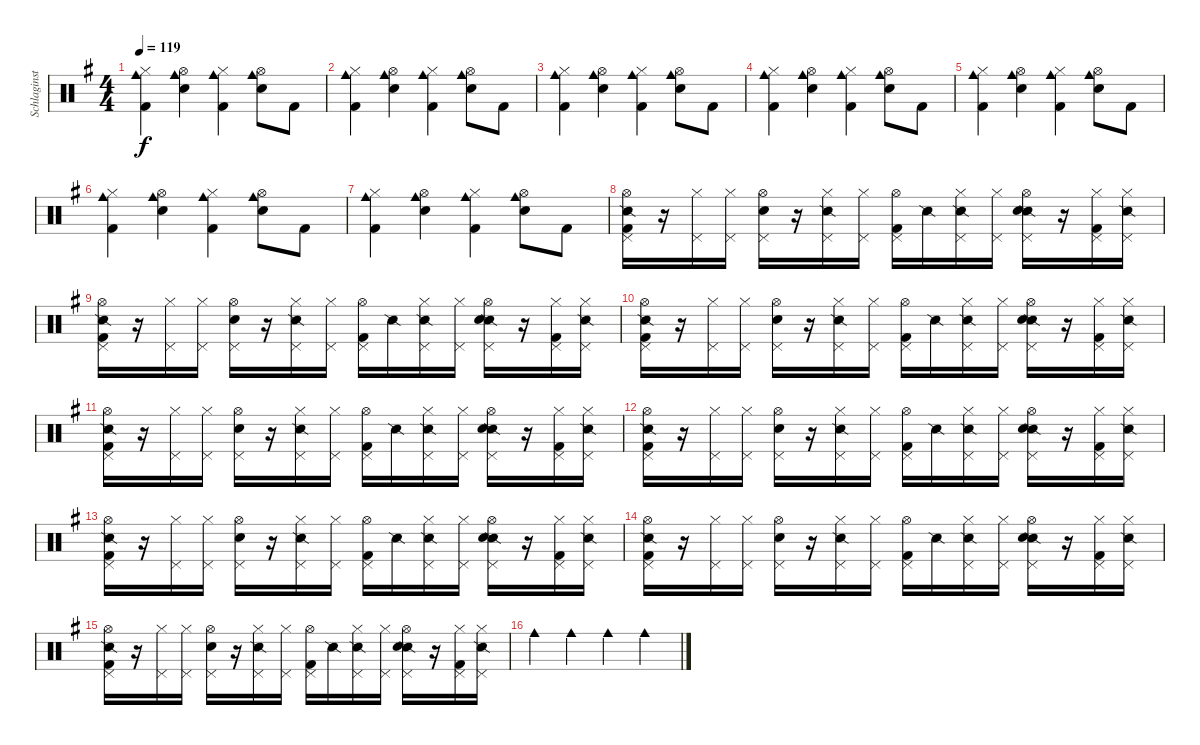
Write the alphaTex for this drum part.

\track ("Schlaginstrumente - Auswahl" "Schlaginst") {instrument percussion}
\staff {score}
\articulation defaults
\ts (4 4)
\tempo 119
\clef neutral
\ks g
("Cowbell medium (hit)" "Hi-Hat (closed)" "Kick (hit) 2").4{dy f} ("Cowbell medium (hit)" "Hi-Hat (open)" "Snare (hit) 2").4 ("Cowbell medium (hit)" "Hi-Hat (closed)" "Kick (hit) 2").4 ("Cowbell medium (hit)" "Hi-Hat (open)" "Snare (hit) 2").8 "Kick (hit) 2".8 |
("Cowbell medium (hit)" "Hi-Hat (closed)" "Kick (hit) 2").4 ("Cowbell medium (hit)" "Hi-Hat (open)" "Snare (hit) 2").4 ("Cowbell medium (hit)" "Hi-Hat (closed)" "Kick (hit) 2").4 ("Cowbell medium (hit)" "Hi-Hat (open)" "Snare (hit) 2").8 "Kick (hit) 2".8 |
("Cowbell medium (hit)" "Hi-Hat (closed)" "Kick (hit) 2").4 ("Cowbell medium (hit)" "Hi-Hat (open)" "Snare (hit) 2").4 ("Cowbell medium (hit)" "Hi-Hat (closed)" "Kick (hit) 2").4 ("Cowbell medium (hit)" "Hi-Hat (open)" "Snare (hit) 2").8 "Kick (hit) 2".8 |
("Cowbell medium (hit)" "Hi-Hat (closed)" "Kick (hit) 2").4 ("Cowbell medium (hit)" "Hi-Hat (open)" "Snare (hit) 2").4 ("Cowbell medium (hit)" "Hi-Hat (closed)" "Kick (hit) 2").4 ("Cowbell medium (hit)" "Hi-Hat (open)" "Snare (hit) 2").8 "Kick (hit) 2".8 |
("Cowbell medium (hit)" "Hi-Hat (closed)" "Kick (hit) 2").4 ("Cowbell medium (hit)" "Hi-Hat (open)" "Snare (hit) 2").4 ("Cowbell medium (hit)" "Hi-Hat (closed)" "Kick (hit) 2").4 ("Cowbell medium (hit)" "Hi-Hat (open)" "Snare (hit) 2").8 "Kick (hit) 2".8 |
("Cowbell medium (hit)" "Hi-Hat (closed)" "Kick (hit) 2").4 ("Cowbell medium (hit)" "Hi-Hat (open)" "Snare (hit) 2").4 ("Cowbell medium (hit)" "Hi-Hat (closed)" "Kick (hit) 2").4 ("Cowbell medium (hit)" "Hi-Hat (open)" "Snare (hit) 2").8 "Kick (hit) 2".8 |
("Cowbell medium (hit)" "Hi-Hat (closed)" "Kick (hit) 2").4 ("Cowbell medium (hit)" "Hi-Hat (open)" "Snare (hit) 2").4 ("Cowbell medium (hit)" "Hi-Hat (closed)" "Kick (hit) 2").4 ("Cowbell medium (hit)" "Hi-Hat (open)" "Snare (hit) 2").8 "Kick (hit) 2".8 |
("Pedal Hi-Hat (hit)" "Hi-Hat (open)" "Snare (side stick) 2" "Kick (hit) 2").16 r.16 ("Pedal Hi-Hat (hit)" "Hi-Hat (closed)").16 ("Pedal Hi-Hat (hit)" "Hi-Hat (closed)").16 ("Pedal Hi-Hat (hit)" "Hi-Hat (open)" "Snare (hit) 2").16 r.16 ("Pedal Hi-Hat (hit)" "Hi-Hat (closed)" "Snare (side stick) 2").16 ("Pedal Hi-Hat (hit)" "Hi-Hat (closed)").16 ("Pedal Hi-Hat (hit)" "Hi-Hat (open)" "Kick (hit) 2").16 "Snare (side stick) 2".16 ("Pedal Hi-Hat (hit)" "Hi-Hat (closed)" "Snare (side stick) 2").16 ("Pedal Hi-Hat (hit)" "Hi-Hat (closed)").16 ("Pedal Hi-Hat (hit)" "Hi-Hat (open)" "Snare (side stick) 2" "Snare (hit) 2").16 r.16 ("Pedal Hi-Hat (hit)" "Hi-Hat (closed)" "Kick (hit) 2").16 ("Pedal Hi-Hat (hit)" "Hi-Hat (closed)" "Snare (side stick) 2").16 |
("Pedal Hi-Hat (hit)" "Hi-Hat (open)" "Snare (side stick) 2" "Kick (hit) 2").16 r.16 ("Pedal Hi-Hat (hit)" "Hi-Hat (closed)").16 ("Pedal Hi-Hat (hit)" "Hi-Hat (closed)").16 ("Pedal Hi-Hat (hit)" "Hi-Hat (open)" "Snare (hit) 2").16 r.16 ("Pedal Hi-Hat (hit)" "Hi-Hat (closed)" "Snare (side stick) 2").16 ("Pedal Hi-Hat (hit)" "Hi-Hat (closed)").16 ("Pedal Hi-Hat (hit)" "Hi-Hat (open)" "Kick (hit) 2").16 "Snare (side stick) 2".16 ("Pedal Hi-Hat (hit)" "Hi-Hat (closed)" "Snare (side stick) 2").16 ("Pedal Hi-Hat (hit)" "Hi-Hat (closed)").16 ("Pedal Hi-Hat (hit)" "Hi-Hat (open)" "Snare (side stick) 2" "Snare (hit) 2").16 r.16 ("Pedal Hi-Hat (hit)" "Hi-Hat (closed)" "Kick (hit) 2").16 ("Pedal Hi-Hat (hit)" "Hi-Hat (closed)" "Snare (side stick) 2").16 |
("Pedal Hi-Hat (hit)" "Hi-Hat (open)" "Snare (side stick) 2" "Kick (hit) 2").16 r.16 ("Pedal Hi-Hat (hit)" "Hi-Hat (closed)").16 ("Pedal Hi-Hat (hit)" "Hi-Hat (closed)").16 ("Pedal Hi-Hat (hit)" "Hi-Hat (open)" "Snare (hit) 2").16 r.16 ("Pedal Hi-Hat (hit)" "Hi-Hat (closed)" "Snare (side stick) 2").16 ("Pedal Hi-Hat (hit)" "Hi-Hat (closed)").16 ("Pedal Hi-Hat (hit)" "Hi-Hat (open)" "Kick (hit) 2").16 "Snare (side stick) 2".16 ("Pedal Hi-Hat (hit)" "Hi-Hat (closed)" "Snare (side stick) 2").16 ("Pedal Hi-Hat (hit)" "Hi-Hat (closed)").16 ("Pedal Hi-Hat (hit)" "Hi-Hat (open)" "Snare (side stick) 2" "Snare (hit) 2").16 r.16 ("Pedal Hi-Hat (hit)" "Hi-Hat (closed)" "Kick (hit) 2").16 ("Pedal Hi-Hat (hit)" "Hi-Hat (closed)" "Snare (side stick) 2").16 |
("Pedal Hi-Hat (hit)" "Hi-Hat (open)" "Snare (side stick) 2" "Kick (hit) 2").16 r.16 ("Pedal Hi-Hat (hit)" "Hi-Hat (closed)").16 ("Pedal Hi-Hat (hit)" "Hi-Hat (closed)").16 ("Pedal Hi-Hat (hit)" "Hi-Hat (open)" "Snare (hit) 2").16 r.16 ("Pedal Hi-Hat (hit)" "Hi-Hat (closed)" "Snare (side stick) 2").16 ("Pedal Hi-Hat (hit)" "Hi-Hat (closed)").16 ("Pedal Hi-Hat (hit)" "Hi-Hat (open)" "Kick (hit) 2").16 "Snare (side stick) 2".16 ("Pedal Hi-Hat (hit)" "Hi-Hat (closed)" "Snare (side stick) 2").16 ("Pedal Hi-Hat (hit)" "Hi-Hat (closed)").16 ("Pedal Hi-Hat (hit)" "Hi-Hat (open)" "Snare (side stick) 2" "Snare (hit) 2").16 r.16 ("Pedal Hi-Hat (hit)" "Hi-Hat (closed)" "Kick (hit) 2").16 ("Pedal Hi-Hat (hit)" "Hi-Hat (closed)" "Snare (side stick) 2").16 |
("Pedal Hi-Hat (hit)" "Hi-Hat (open)" "Snare (side stick) 2" "Kick (hit) 2").16 r.16 ("Pedal Hi-Hat (hit)" "Hi-Hat (closed)").16 ("Pedal Hi-Hat (hit)" "Hi-Hat (closed)").16 ("Pedal Hi-Hat (hit)" "Hi-Hat (open)" "Snare (hit) 2").16 r.16 ("Pedal Hi-Hat (hit)" "Hi-Hat (closed)" "Snare (side stick) 2").16 ("Pedal Hi-Hat (hit)" "Hi-Hat (closed)").16 ("Pedal Hi-Hat (hit)" "Hi-Hat (open)" "Kick (hit) 2").16 "Snare (side stick) 2".16 ("Pedal Hi-Hat (hit)" "Hi-Hat (closed)" "Snare (side stick) 2").16 ("Pedal Hi-Hat (hit)" "Hi-Hat (closed)").16 ("Pedal Hi-Hat (hit)" "Hi-Hat (open)" "Snare (side stick) 2" "Snare (hit) 2").16 r.16 ("Pedal Hi-Hat (hit)" "Hi-Hat (closed)" "Kick (hit) 2").16 ("Pedal Hi-Hat (hit)" "Hi-Hat (closed)" "Snare (side stick) 2").16 |
("Pedal Hi-Hat (hit)" "Hi-Hat (open)" "Snare (side stick) 2" "Kick (hit) 2").16 r.16 ("Pedal Hi-Hat (hit)" "Hi-Hat (closed)").16 ("Pedal Hi-Hat (hit)" "Hi-Hat (closed)").16 ("Pedal Hi-Hat (hit)" "Hi-Hat (open)" "Snare (hit) 2").16 r.16 ("Pedal Hi-Hat (hit)" "Hi-Hat (closed)" "Snare (side stick) 2").16 ("Pedal Hi-Hat (hit)" "Hi-Hat (closed)").16 ("Pedal Hi-Hat (hit)" "Hi-Hat (open)" "Kick (hit) 2").16 "Snare (side stick) 2".16 ("Pedal Hi-Hat (hit)" "Hi-Hat (closed)" "Snare (side stick) 2").16 ("Pedal Hi-Hat (hit)" "Hi-Hat (closed)").16 ("Pedal Hi-Hat (hit)" "Hi-Hat (open)" "Snare (side stick) 2" "Snare (hit) 2").16 r.16 ("Pedal Hi-Hat (hit)" "Hi-Hat (closed)" "Kick (hit) 2").16 ("Pedal Hi-Hat (hit)" "Hi-Hat (closed)" "Snare (side stick) 2").16 |
("Pedal Hi-Hat (hit)" "Hi-Hat (open)" "Snare (side stick) 2" "Kick (hit) 2").16 r.16 ("Pedal Hi-Hat (hit)" "Hi-Hat (closed)").16 ("Pedal Hi-Hat (hit)" "Hi-Hat (closed)").16 ("Pedal Hi-Hat (hit)" "Hi-Hat (open)" "Snare (hit) 2").16 r.16 ("Pedal Hi-Hat (hit)" "Hi-Hat (closed)" "Snare (side stick) 2").16 ("Pedal Hi-Hat (hit)" "Hi-Hat (closed)").16 ("Pedal Hi-Hat (hit)" "Hi-Hat (open)" "Kick (hit) 2").16 "Snare (side stick) 2".16 ("Pedal Hi-Hat (hit)" "Hi-Hat (closed)" "Snare (side stick) 2").16 ("Pedal Hi-Hat (hit)" "Hi-Hat (closed)").16 ("Pedal Hi-Hat (hit)" "Hi-Hat (open)" "Snare (side stick) 2" "Snare (hit) 2").16 r.16 ("Pedal Hi-Hat (hit)" "Hi-Hat (closed)" "Kick (hit) 2").16 ("Pedal Hi-Hat (hit)" "Hi-Hat (closed)" "Snare (side stick) 2").16 |
("Pedal Hi-Hat (hit)" "Hi-Hat (open)" "Snare (side stick) 2" "Kick (hit) 2").16 r.16 ("Pedal Hi-Hat (hit)" "Hi-Hat (closed)").16 ("Pedal Hi-Hat (hit)" "Hi-Hat (closed)").16 ("Pedal Hi-Hat (hit)" "Hi-Hat (open)" "Snare (hit) 2").16 r.16 ("Pedal Hi-Hat (hit)" "Hi-Hat (closed)" "Snare (side stick) 2").16 ("Pedal Hi-Hat (hit)" "Hi-Hat (closed)").16 ("Pedal Hi-Hat (hit)" "Hi-Hat (open)" "Kick (hit) 2").16 "Snare (side stick) 2".16 ("Pedal Hi-Hat (hit)" "Hi-Hat (closed)" "Snare (side stick) 2").16 ("Pedal Hi-Hat (hit)" "Hi-Hat (closed)").16 ("Pedal Hi-Hat (hit)" "Hi-Hat (open)" "Snare (side stick) 2" "Snare (hit) 2").16 r.16 ("Pedal Hi-Hat (hit)" "Hi-Hat (closed)" "Kick (hit) 2").16 ("Pedal Hi-Hat (hit)" "Hi-Hat (closed)" "Snare (side stick) 2").16 |
"Cowbell medium (hit)".4 "Cowbell medium (hit)".4 "Cowbell medium (hit)".4 "Cowbell medium (hit)".4
